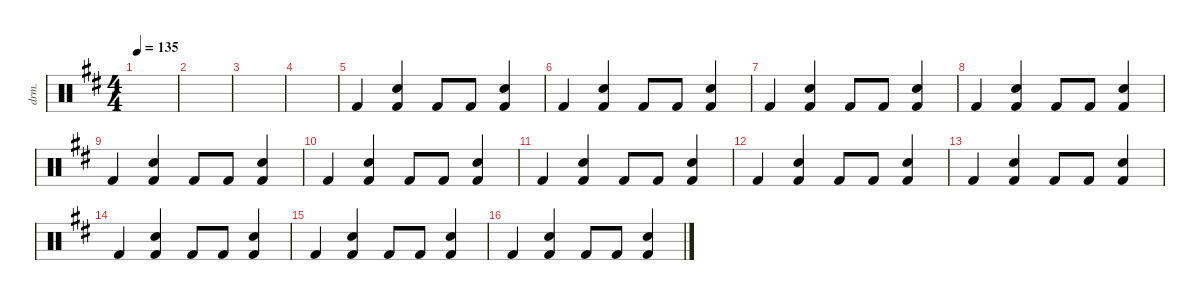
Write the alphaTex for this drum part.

\defaultSystemsLayout 4
\hideDynamics
\bracketExtendMode nobrackets
\otherSystemsTrackNameOrientation horizontal
\track ("Drumkit" "drm.") {instrument percussion}
\staff {score}
\articulation defaults
\ts (4 4)
\tempo 135
\clef neutral
\ks d
|
|
|
|
"Kick (hit) 2"{acc forcenatural}.4{beam Up} ("Kick (hit) 2"{acc forcenatural} "Snare (hit) 2"{acc forcenatural}).4{beam Up} "Kick (hit) 2"{acc forcenatural}.8{beam Up} "Kick (hit) 2"{acc forcenatural}.8{beam Up} ("Kick (hit) 2"{acc forcenatural} "Snare (hit) 2"{acc forcenatural}).4{beam Up} |
"Kick (hit) 2"{acc forcenatural}.4{beam Up} ("Kick (hit) 2"{acc forcenatural} "Snare (hit) 2"{acc forcenatural}).4{beam Up} "Kick (hit) 2"{acc forcenatural}.8{beam Up} "Kick (hit) 2"{acc forcenatural}.8{beam Up} ("Kick (hit) 2"{acc forcenatural} "Snare (hit) 2"{acc forcenatural}).4{beam Up} |
"Kick (hit) 2"{acc forcenatural}.4{beam Up} ("Kick (hit) 2"{acc forcenatural} "Snare (hit) 2"{acc forcenatural}).4{beam Up} "Kick (hit) 2"{acc forcenatural}.8{beam Up} "Kick (hit) 2"{acc forcenatural}.8{beam Up} ("Kick (hit) 2"{acc forcenatural} "Snare (hit) 2"{acc forcenatural}).4{beam Up} |
"Kick (hit) 2"{acc forcenatural}.4{beam Up} ("Kick (hit) 2"{acc forcenatural} "Snare (hit) 2"{acc forcenatural}).4{beam Up} "Kick (hit) 2"{acc forcenatural}.8{beam Up} "Kick (hit) 2"{acc forcenatural}.8{beam Up} ("Kick (hit) 2"{acc forcenatural} "Snare (hit) 2"{acc forcenatural}).4{beam Up} |
"Kick (hit) 2"{acc forcenatural}.4{beam Up} ("Kick (hit) 2"{acc forcenatural} "Snare (hit) 2"{acc forcenatural}).4{beam Up} "Kick (hit) 2"{acc forcenatural}.8{beam Up} "Kick (hit) 2"{acc forcenatural}.8{beam Up} ("Kick (hit) 2"{acc forcenatural} "Snare (hit) 2"{acc forcenatural}).4{beam Up} |
"Kick (hit) 2"{acc forcenatural}.4{beam Up} ("Kick (hit) 2"{acc forcenatural} "Snare (hit) 2"{acc forcenatural}).4{beam Up} "Kick (hit) 2"{acc forcenatural}.8{beam Up} "Kick (hit) 2"{acc forcenatural}.8{beam Up} ("Kick (hit) 2"{acc forcenatural} "Snare (hit) 2"{acc forcenatural}).4{beam Up} |
"Kick (hit) 2"{acc forcenatural}.4{beam Up} ("Kick (hit) 2"{acc forcenatural} "Snare (hit) 2"{acc forcenatural}).4{beam Up} "Kick (hit) 2"{acc forcenatural}.8{beam Up} "Kick (hit) 2"{acc forcenatural}.8{beam Up} ("Kick (hit) 2"{acc forcenatural} "Snare (hit) 2"{acc forcenatural}).4{beam Up} |
"Kick (hit) 2"{acc forcenatural}.4{beam Up} ("Kick (hit) 2"{acc forcenatural} "Snare (hit) 2"{acc forcenatural}).4{beam Up} "Kick (hit) 2"{acc forcenatural}.8{beam Up} "Kick (hit) 2"{acc forcenatural}.8{beam Up} ("Kick (hit) 2"{acc forcenatural} "Snare (hit) 2"{acc forcenatural}).4{beam Up} |
"Kick (hit) 2"{acc forcenatural}.4{beam Up} ("Kick (hit) 2"{acc forcenatural} "Snare (hit) 2"{acc forcenatural}).4{beam Up} "Kick (hit) 2"{acc forcenatural}.8{beam Up} "Kick (hit) 2"{acc forcenatural}.8{beam Up} ("Kick (hit) 2"{acc forcenatural} "Snare (hit) 2"{acc forcenatural}).4{beam Up} |
"Kick (hit) 2"{acc forcenatural}.4{beam Up} ("Kick (hit) 2"{acc forcenatural} "Snare (hit) 2"{acc forcenatural}).4{beam Up} "Kick (hit) 2"{acc forcenatural}.8{beam Up} "Kick (hit) 2"{acc forcenatural}.8{beam Up} ("Kick (hit) 2"{acc forcenatural} "Snare (hit) 2"{acc forcenatural}).4{beam Up} |
"Kick (hit) 2"{acc forcenatural}.4{beam Up} ("Kick (hit) 2"{acc forcenatural} "Snare (hit) 2"{acc forcenatural}).4{beam Up} "Kick (hit) 2"{acc forcenatural}.8{beam Up} "Kick (hit) 2"{acc forcenatural}.8{beam Up} ("Kick (hit) 2"{acc forcenatural} "Snare (hit) 2"{acc forcenatural}).4{beam Up} |
"Kick (hit) 2"{acc forcenatural}.4{beam Up} ("Kick (hit) 2"{acc forcenatural} "Snare (hit) 2"{acc forcenatural}).4{beam Up} "Kick (hit) 2"{acc forcenatural}.8{beam Up} "Kick (hit) 2"{acc forcenatural}.8{beam Up} ("Kick (hit) 2"{acc forcenatural} "Snare (hit) 2"{acc forcenatural}).4{beam Up}
